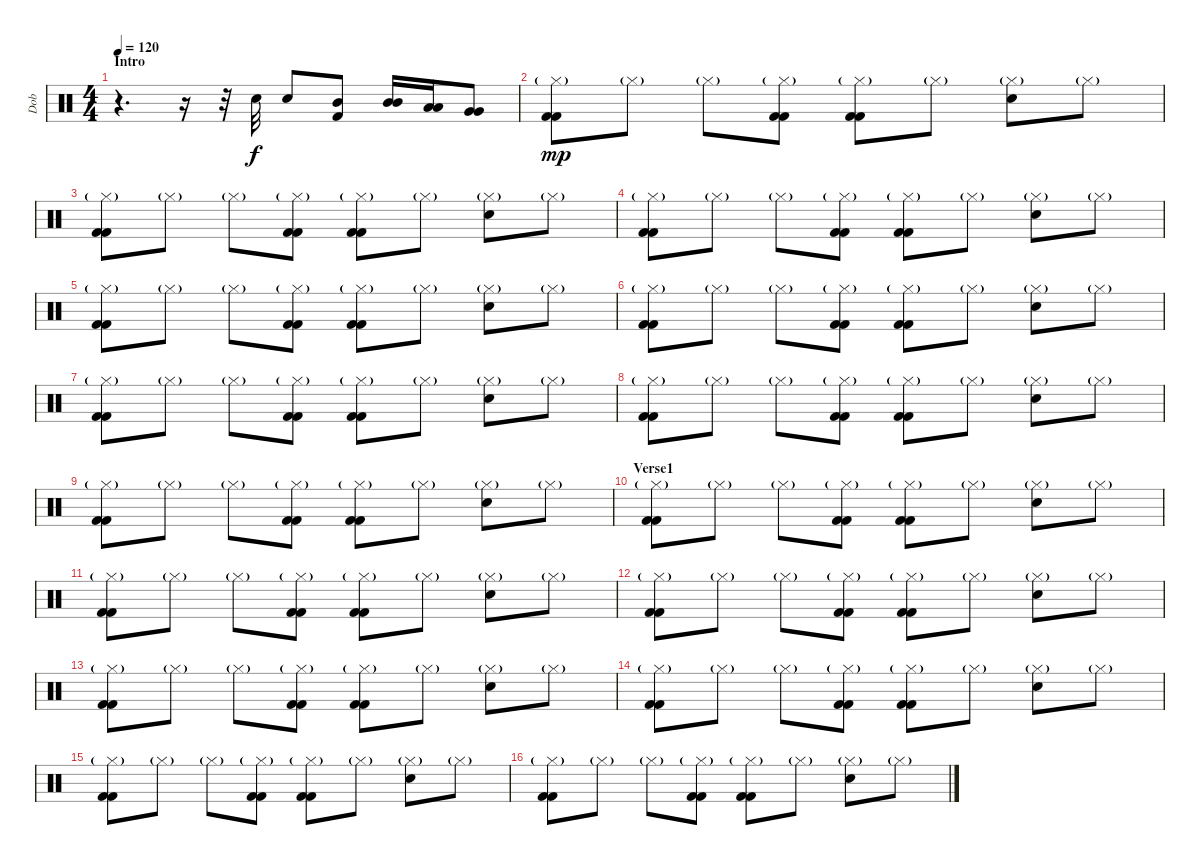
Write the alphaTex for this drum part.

\track ("Dob" "Dob") {instrument percussion}
\staff {score}
\articulation defaults
\ts (4 4)
\section ("" "Intro")
\tempo 120
\clef neutral
\ks c
r.4{d dy f} r.16 r.32 "Snare (hit) 2".32 "Snare (hit) 2".8 ("Kick (hit) 2" "Mid Tom (hit)").8 ("Mid Tom (hit)" "Mid Tom (hit)").16 ("Low Tom (hit)" "Low Tom (hit)").16 ("Very Low Tom (hit)" "Very Low Tom (hit)").8 |
("Hi-Hat (closed)"{g} "Kick (hit) 2" "Kick (hit) 2").8{dy mp} "Hi-Hat (closed)"{g}.8 "Hi-Hat (closed)"{g}.8 ("Hi-Hat (closed)"{g} "Kick (hit) 2" "Kick (hit) 2").8 ("Hi-Hat (closed)"{g} "Kick (hit) 2" "Kick (hit) 2").8 "Hi-Hat (closed)"{g}.8 ("Hi-Hat (closed)"{g} "Snare (hit) 2").8 "Hi-Hat (closed)"{g}.8 |
("Hi-Hat (closed)"{g} "Kick (hit) 2" "Kick (hit) 2").8 "Hi-Hat (closed)"{g}.8 "Hi-Hat (closed)"{g}.8 ("Hi-Hat (closed)"{g} "Kick (hit) 2" "Kick (hit) 2").8 ("Hi-Hat (closed)"{g} "Kick (hit) 2" "Kick (hit) 2").8 "Hi-Hat (closed)"{g}.8 ("Hi-Hat (closed)"{g} "Snare (hit) 2").8 "Hi-Hat (closed)"{g}.8 |
("Hi-Hat (closed)"{g} "Kick (hit) 2" "Kick (hit) 2").8 "Hi-Hat (closed)"{g}.8 "Hi-Hat (closed)"{g}.8 ("Hi-Hat (closed)"{g} "Kick (hit) 2" "Kick (hit) 2").8 ("Hi-Hat (closed)"{g} "Kick (hit) 2" "Kick (hit) 2").8 "Hi-Hat (closed)"{g}.8 ("Hi-Hat (closed)"{g} "Snare (hit) 2").8 "Hi-Hat (closed)"{g}.8 |
("Hi-Hat (closed)"{g} "Kick (hit) 2" "Kick (hit) 2").8 "Hi-Hat (closed)"{g}.8 "Hi-Hat (closed)"{g}.8 ("Hi-Hat (closed)"{g} "Kick (hit) 2" "Kick (hit) 2").8 ("Hi-Hat (closed)"{g} "Kick (hit) 2" "Kick (hit) 2").8 "Hi-Hat (closed)"{g}.8 ("Hi-Hat (closed)"{g} "Snare (hit) 2").8 "Hi-Hat (closed)"{g}.8 |
("Hi-Hat (closed)"{g} "Kick (hit) 2" "Kick (hit) 2").8 "Hi-Hat (closed)"{g}.8 "Hi-Hat (closed)"{g}.8 ("Hi-Hat (closed)"{g} "Kick (hit) 2" "Kick (hit) 2").8 ("Hi-Hat (closed)"{g} "Kick (hit) 2" "Kick (hit) 2").8 "Hi-Hat (closed)"{g}.8 ("Hi-Hat (closed)"{g} "Snare (hit) 2").8 "Hi-Hat (closed)"{g}.8 |
("Hi-Hat (closed)"{g} "Kick (hit) 2" "Kick (hit) 2").8 "Hi-Hat (closed)"{g}.8 "Hi-Hat (closed)"{g}.8 ("Hi-Hat (closed)"{g} "Kick (hit) 2" "Kick (hit) 2").8 ("Hi-Hat (closed)"{g} "Kick (hit) 2" "Kick (hit) 2").8 "Hi-Hat (closed)"{g}.8 ("Hi-Hat (closed)"{g} "Snare (hit) 2").8 "Hi-Hat (closed)"{g}.8 |
("Hi-Hat (closed)"{g} "Kick (hit) 2" "Kick (hit) 2").8 "Hi-Hat (closed)"{g}.8 "Hi-Hat (closed)"{g}.8 ("Hi-Hat (closed)"{g} "Kick (hit) 2" "Kick (hit) 2").8 ("Hi-Hat (closed)"{g} "Kick (hit) 2" "Kick (hit) 2").8 "Hi-Hat (closed)"{g}.8 ("Hi-Hat (closed)"{g} "Snare (hit) 2").8 "Hi-Hat (closed)"{g}.8 |
("Hi-Hat (closed)"{g} "Kick (hit) 2" "Kick (hit) 2").8 "Hi-Hat (closed)"{g}.8 "Hi-Hat (closed)"{g}.8 ("Hi-Hat (closed)"{g} "Kick (hit) 2" "Kick (hit) 2").8 ("Hi-Hat (closed)"{g} "Kick (hit) 2" "Kick (hit) 2").8 "Hi-Hat (closed)"{g}.8 ("Hi-Hat (closed)"{g} "Snare (hit) 2").8 "Hi-Hat (closed)"{g}.8 |
\section ("" "Verse1")
("Hi-Hat (closed)"{g} "Kick (hit) 2" "Kick (hit) 2").8 "Hi-Hat (closed)"{g}.8 "Hi-Hat (closed)"{g}.8 ("Hi-Hat (closed)"{g} "Kick (hit) 2" "Kick (hit) 2").8 ("Hi-Hat (closed)"{g} "Kick (hit) 2" "Kick (hit) 2").8 "Hi-Hat (closed)"{g}.8 ("Hi-Hat (closed)"{g} "Snare (hit) 2").8 "Hi-Hat (closed)"{g}.8 |
("Hi-Hat (closed)"{g} "Kick (hit) 2" "Kick (hit) 2").8 "Hi-Hat (closed)"{g}.8 "Hi-Hat (closed)"{g}.8 ("Hi-Hat (closed)"{g} "Kick (hit) 2" "Kick (hit) 2").8 ("Hi-Hat (closed)"{g} "Kick (hit) 2" "Kick (hit) 2").8 "Hi-Hat (closed)"{g}.8 ("Hi-Hat (closed)"{g} "Snare (hit) 2").8 "Hi-Hat (closed)"{g}.8 |
("Hi-Hat (closed)"{g} "Kick (hit) 2" "Kick (hit) 2").8 "Hi-Hat (closed)"{g}.8 "Hi-Hat (closed)"{g}.8 ("Hi-Hat (closed)"{g} "Kick (hit) 2" "Kick (hit) 2").8 ("Hi-Hat (closed)"{g} "Kick (hit) 2" "Kick (hit) 2").8 "Hi-Hat (closed)"{g}.8 ("Hi-Hat (closed)"{g} "Snare (hit) 2").8 "Hi-Hat (closed)"{g}.8 |
("Hi-Hat (closed)"{g} "Kick (hit) 2" "Kick (hit) 2").8 "Hi-Hat (closed)"{g}.8 "Hi-Hat (closed)"{g}.8 ("Hi-Hat (closed)"{g} "Kick (hit) 2" "Kick (hit) 2").8 ("Hi-Hat (closed)"{g} "Kick (hit) 2" "Kick (hit) 2").8 "Hi-Hat (closed)"{g}.8 ("Hi-Hat (closed)"{g} "Snare (hit) 2").8 "Hi-Hat (closed)"{g}.8 |
("Hi-Hat (closed)"{g} "Kick (hit) 2" "Kick (hit) 2").8 "Hi-Hat (closed)"{g}.8 "Hi-Hat (closed)"{g}.8 ("Hi-Hat (closed)"{g} "Kick (hit) 2" "Kick (hit) 2").8 ("Hi-Hat (closed)"{g} "Kick (hit) 2" "Kick (hit) 2").8 "Hi-Hat (closed)"{g}.8 ("Hi-Hat (closed)"{g} "Snare (hit) 2").8 "Hi-Hat (closed)"{g}.8 |
("Hi-Hat (closed)"{g} "Kick (hit) 2" "Kick (hit) 2").8 "Hi-Hat (closed)"{g}.8 "Hi-Hat (closed)"{g}.8 ("Hi-Hat (closed)"{g} "Kick (hit) 2" "Kick (hit) 2").8 ("Hi-Hat (closed)"{g} "Kick (hit) 2" "Kick (hit) 2").8 "Hi-Hat (closed)"{g}.8 ("Hi-Hat (closed)"{g} "Snare (hit) 2").8 "Hi-Hat (closed)"{g}.8 |
("Hi-Hat (closed)"{g} "Kick (hit) 2" "Kick (hit) 2").8 "Hi-Hat (closed)"{g}.8 "Hi-Hat (closed)"{g}.8 ("Hi-Hat (closed)"{g} "Kick (hit) 2" "Kick (hit) 2").8 ("Hi-Hat (closed)"{g} "Kick (hit) 2" "Kick (hit) 2").8 "Hi-Hat (closed)"{g}.8 ("Hi-Hat (closed)"{g} "Snare (hit) 2").8 "Hi-Hat (closed)"{g}.8
